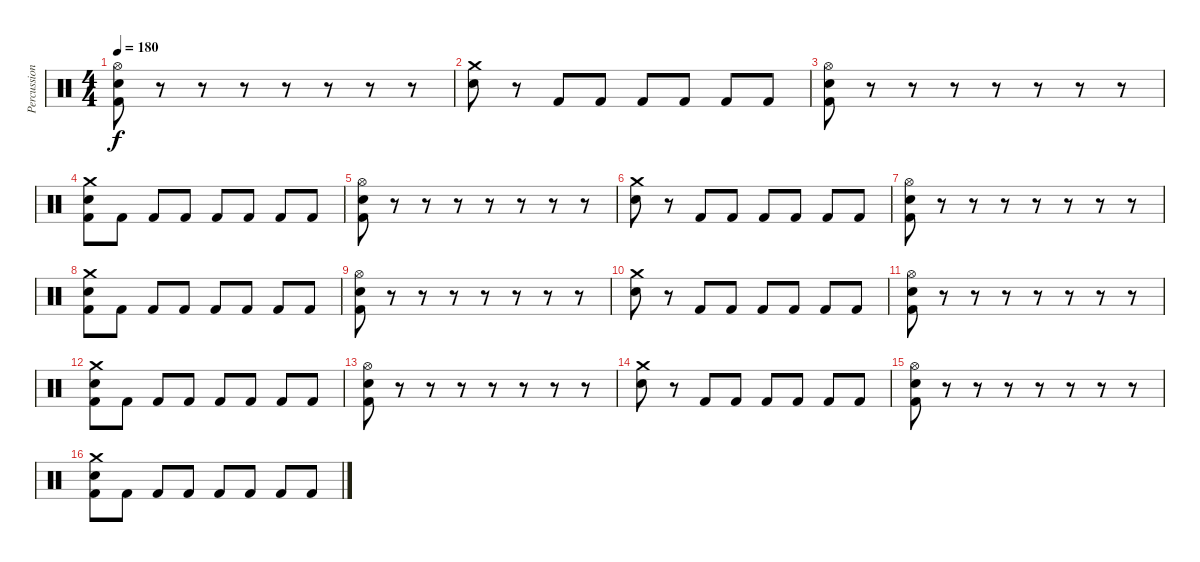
\track ("Percussion" "Percussion") {instrument percussion}
\staff {score}
\articulation defaults
\ts (4 4)
\tempo 180
\clef neutral
\ks c
("Hi-Hat (open)" "Snare (hit) 2" "Kick (hit) 2").8{dy f} r.8 r.8 r.8 r.8 r.8 r.8 r.8 |
("Crash medium (hit)" "Snare (hit) 2").8 r.8 "Kick (hit) 2".8 "Kick (hit) 2".8 "Kick (hit) 2".8 "Kick (hit) 2".8 "Kick (hit) 2".8 "Kick (hit) 2".8 |
("Hi-Hat (open)" "Snare (hit) 2" "Kick (hit) 2").8 r.8 r.8 r.8 r.8 r.8 r.8 r.8 |
("Crash medium (hit)" "Snare (hit) 2" "Kick (hit) 2").8 "Kick (hit) 2".8 "Kick (hit) 2".8 "Kick (hit) 2".8 "Kick (hit) 2".8 "Kick (hit) 2".8 "Kick (hit) 2".8 "Kick (hit) 2".8 |
("Hi-Hat (open)" "Snare (hit) 2" "Kick (hit) 2").8 r.8 r.8 r.8 r.8 r.8 r.8 r.8 |
("Crash medium (hit)" "Snare (hit) 2").8 r.8 "Kick (hit) 2".8 "Kick (hit) 2".8 "Kick (hit) 2".8 "Kick (hit) 2".8 "Kick (hit) 2".8 "Kick (hit) 2".8 |
("Hi-Hat (open)" "Snare (hit) 2" "Kick (hit) 2").8 r.8 r.8 r.8 r.8 r.8 r.8 r.8 |
("Crash medium (hit)" "Snare (hit) 2" "Kick (hit) 2").8 "Kick (hit) 2".8 "Kick (hit) 2".8 "Kick (hit) 2".8 "Kick (hit) 2".8 "Kick (hit) 2".8 "Kick (hit) 2".8 "Kick (hit) 2".8 |
("Hi-Hat (open)" "Snare (hit) 2" "Kick (hit) 2").8 r.8 r.8 r.8 r.8 r.8 r.8 r.8 |
("Crash medium (hit)" "Snare (hit) 2").8 r.8 "Kick (hit) 2".8 "Kick (hit) 2".8 "Kick (hit) 2".8 "Kick (hit) 2".8 "Kick (hit) 2".8 "Kick (hit) 2".8 |
("Hi-Hat (open)" "Snare (hit) 2" "Kick (hit) 2").8 r.8 r.8 r.8 r.8 r.8 r.8 r.8 |
("Crash medium (hit)" "Snare (hit) 2" "Kick (hit) 2").8 "Kick (hit) 2".8 "Kick (hit) 2".8 "Kick (hit) 2".8 "Kick (hit) 2".8 "Kick (hit) 2".8 "Kick (hit) 2".8 "Kick (hit) 2".8 |
("Hi-Hat (open)" "Snare (hit) 2" "Kick (hit) 2").8 r.8 r.8 r.8 r.8 r.8 r.8 r.8 |
("Crash medium (hit)" "Snare (hit) 2").8 r.8 "Kick (hit) 2".8 "Kick (hit) 2".8 "Kick (hit) 2".8 "Kick (hit) 2".8 "Kick (hit) 2".8 "Kick (hit) 2".8 |
("Hi-Hat (open)" "Snare (hit) 2" "Kick (hit) 2").8 r.8 r.8 r.8 r.8 r.8 r.8 r.8 |
("Crash medium (hit)" "Snare (hit) 2" "Kick (hit) 2").8 "Kick (hit) 2".8 "Kick (hit) 2".8 "Kick (hit) 2".8 "Kick (hit) 2".8 "Kick (hit) 2".8 "Kick (hit) 2".8 "Kick (hit) 2".8
